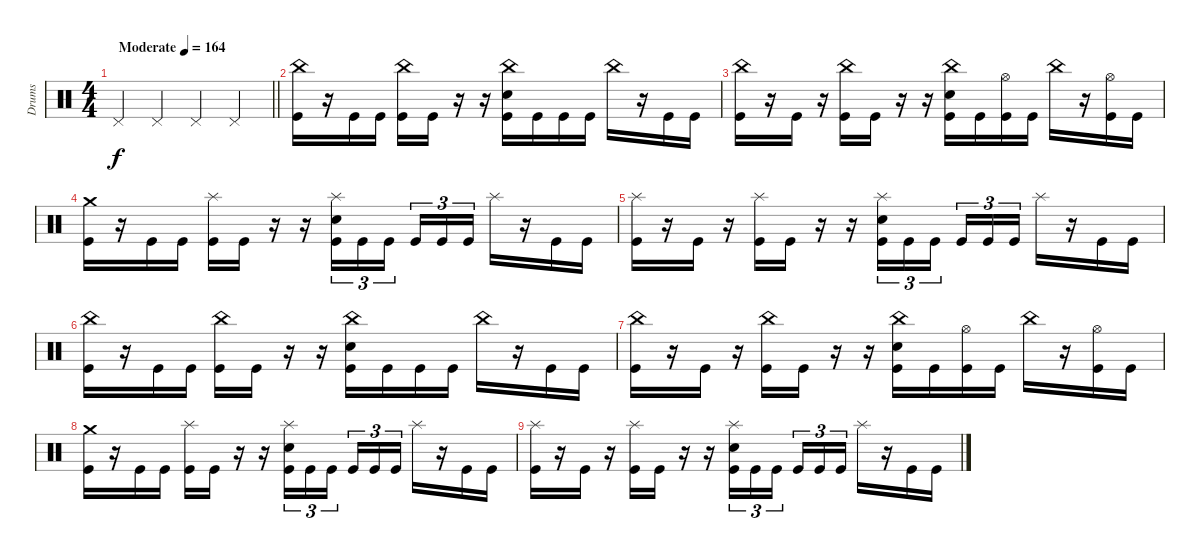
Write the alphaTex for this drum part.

\track ("Drums" "Drums") {instrument percussion}
\staff
\articulation defaults
\ts (4 4)
\tempo (164 "Moderate")
\clef neutral
\barLineRight lightlight
\ks c "Pedal Hi-Hat (hit)".4{dy f} "Pedal Hi-Hat (hit)".4 "Pedal Hi-Hat (hit)".4 "Pedal Hi-Hat (hit)".4
|
("China (hit)" "Kick (hit)").16 r.16 "Kick (hit)".16 "Kick (hit)".16 ("China (hit)" "Kick (hit)").16 "Kick (hit)".16 r.16 r.16 ("China (hit)" "Electric Snare (hit)" "Kick (hit)").16 "Kick (hit)".16 "Kick (hit)".16 "Kick (hit)".16 "China (hit)".16 r.16 "Kick (hit)".16 "Kick (hit)".16 |
("China (hit)" "Kick (hit)").16 r.16 "Kick (hit)".16 r.16 ("China (hit)" "Kick (hit)").16 "Kick (hit)".16 r.16 r.16 ("China (hit)" "Electric Snare (hit)" "Kick (hit)").16 "Kick (hit)".16 ("Hi-Hat (open)" "Kick (hit)").16 "Kick (hit)".16 "China (hit)".16 r.16 ("Hi-Hat (open)" "Kick (hit)").16 "Kick (hit)".16 |
("Crash medium (hit)" "Kick (hit)").16 r.16 "Kick (hit)".16 "Kick (hit)".16 ("Splash (hit)" "Kick (hit)").16 "Kick (hit)".16 r.16 r.16 ("Splash (hit)" "Electric Snare (hit)" "Kick (hit)").16{tu (3 2)} "Kick (hit)".16{tu (3 2)} "Kick (hit)".16{tu (3 2) beam splitsecondary} "Kick (hit)".16{tu (3 2)} "Kick (hit)".16{tu (3 2)} "Kick (hit)".16{tu (3 2)} "Splash (hit)".16 r.16 "Kick (hit)".16 "Kick (hit)".16 |
("Splash (hit)" "Kick (hit)").16 r.16 "Kick (hit)".16 r.16 ("Splash (hit)" "Kick (hit)").16 "Kick (hit)".16 r.16 r.16 ("Splash (hit)" "Electric Snare (hit)" "Kick (hit)").16{tu (3 2)} "Kick (hit)".16{tu (3 2)} "Kick (hit)".16{tu (3 2) beam splitsecondary} "Kick (hit)".16{tu (3 2)} "Kick (hit)".16{tu (3 2)} "Kick (hit)".16{tu (3 2)} "Splash (hit)".16 r.16 "Kick (hit)".16 "Kick (hit)".16 |
("China (hit)" "Kick (hit)").16 r.16 "Kick (hit)".16 "Kick (hit)".16 ("China (hit)" "Kick (hit)").16 "Kick (hit)".16 r.16 r.16 ("China (hit)" "Electric Snare (hit)" "Kick (hit)").16 "Kick (hit)".16 "Kick (hit)".16 "Kick (hit)".16 "China (hit)".16 r.16 "Kick (hit)".16 "Kick (hit)".16 |
("China (hit)" "Kick (hit)").16 r.16 "Kick (hit)".16 r.16 ("China (hit)" "Kick (hit)").16 "Kick (hit)".16 r.16 r.16 ("China (hit)" "Electric Snare (hit)" "Kick (hit)").16 "Kick (hit)".16 ("Hi-Hat (open)" "Kick (hit)").16 "Kick (hit)".16 "China (hit)".16 r.16 ("Hi-Hat (open)" "Kick (hit)").16 "Kick (hit)".16 |
("Crash medium (hit)" "Kick (hit)").16 r.16 "Kick (hit)".16 "Kick (hit)".16 ("Splash (hit)" "Kick (hit)").16 "Kick (hit)".16 r.16 r.16 ("Splash (hit)" "Electric Snare (hit)" "Kick (hit)").16{tu (3 2)} "Kick (hit)".16{tu (3 2)} "Kick (hit)".16{tu (3 2) beam splitsecondary} "Kick (hit)".16{tu (3 2)} "Kick (hit)".16{tu (3 2)} "Kick (hit)".16{tu (3 2)} "Splash (hit)".16 r.16 "Kick (hit)".16 "Kick (hit)".16 |
("Splash (hit)" "Kick (hit)").16 r.16 "Kick (hit)".16 r.16 ("Splash (hit)" "Kick (hit)").16 "Kick (hit)".16 r.16 r.16 ("Splash (hit)" "Electric Snare (hit)" "Kick (hit)").16{tu (3 2)} "Kick (hit)".16{tu (3 2)} "Kick (hit)".16{tu (3 2) beam splitsecondary} "Kick (hit)".16{tu (3 2)} "Kick (hit)".16{tu (3 2)} "Kick (hit)".16{tu (3 2)} "Splash (hit)".16 r.16 "Kick (hit)".16 "Kick (hit)".16
